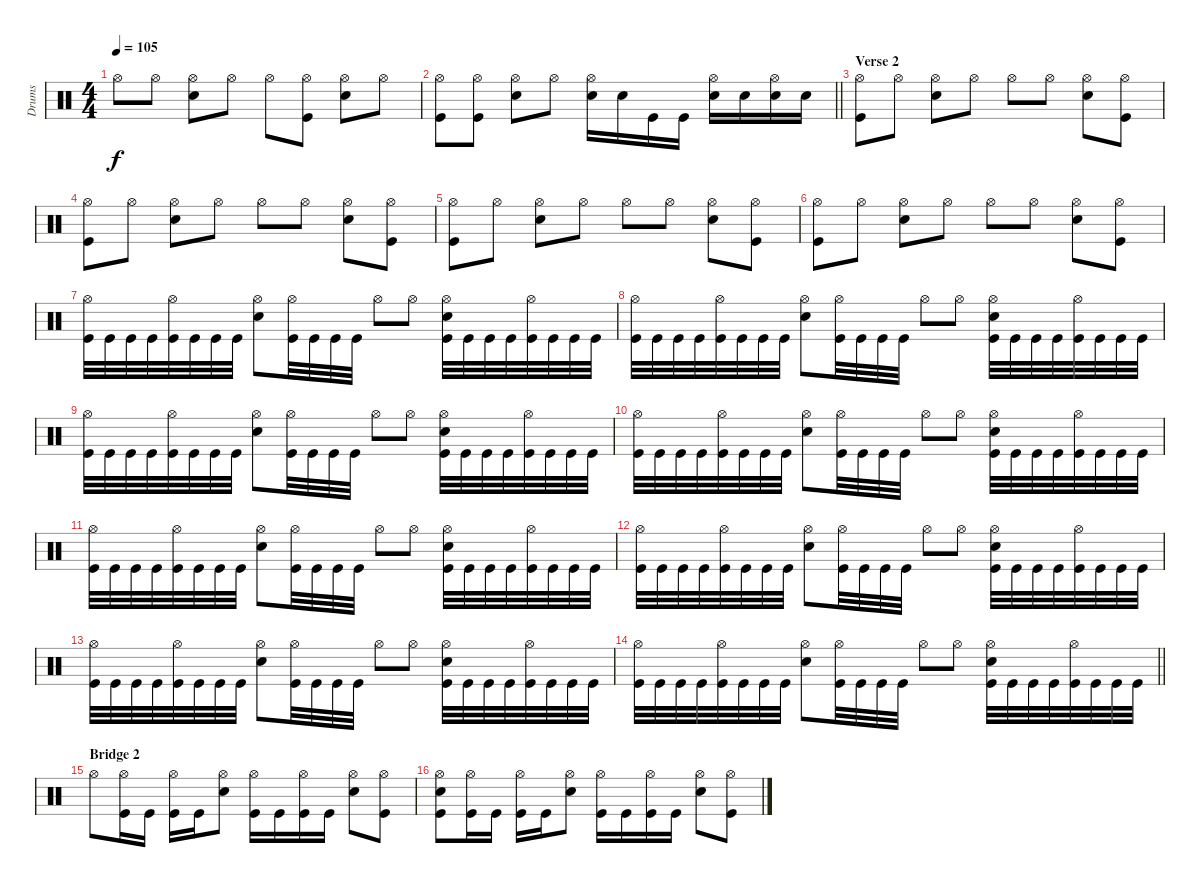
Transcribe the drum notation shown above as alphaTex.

\track ("Drums" "Drums") {instrument percussion}
\staff {score}
\articulation defaults
\ts (4 4)
\tempo 105
\clef neutral
\ks c "Hi-Hat (open)".8{dy f} "Hi-Hat (open)".8
("Snare (hit) 2" "Hi-Hat (open)").8 "Hi-Hat (open)".8 "Hi-Hat (open)".8 ("Kick (hit)" "Hi-Hat (open)").8 ("Snare (hit) 2" "Hi-Hat (open)").8 "Hi-Hat (open)".8 |
\barLineRight lightlight
("Kick (hit)" "Hi-Hat (open)").8 ("Kick (hit)" "Hi-Hat (open)").8 ("Snare (hit) 2" "Hi-Hat (open)").8 "Hi-Hat (open)".8 ("Snare (hit) 2" "Hi-Hat (open)").16 "Snare (hit) 2".16 "Kick (hit)".16 "Kick (hit)".16 ("Snare (hit) 2" "Hi-Hat (open)").16 "Snare (hit) 2".16 ("Snare (hit) 2" "Hi-Hat (open)").16 "Snare (hit) 2".16 |
\section ("" "Verse 2")
("Hi-Hat (open)" "Kick (hit)").8 "Hi-Hat (open)".8 ("Hi-Hat (open)" "Snare (hit) 2").8 "Hi-Hat (open)".8 "Hi-Hat (open)".8 "Hi-Hat (open)".8 ("Hi-Hat (open)" "Snare (hit) 2").8 ("Hi-Hat (open)" "Kick (hit)").8 |
("Hi-Hat (open)" "Kick (hit)").8 "Hi-Hat (open)".8 ("Hi-Hat (open)" "Snare (hit) 2").8 "Hi-Hat (open)".8 "Hi-Hat (open)".8 "Hi-Hat (open)".8 ("Hi-Hat (open)" "Snare (hit) 2").8 ("Hi-Hat (open)" "Kick (hit)").8 |
("Hi-Hat (open)" "Kick (hit)").8 "Hi-Hat (open)".8 ("Hi-Hat (open)" "Snare (hit) 2").8 "Hi-Hat (open)".8 "Hi-Hat (open)".8 "Hi-Hat (open)".8 ("Hi-Hat (open)" "Snare (hit) 2").8 ("Hi-Hat (open)" "Kick (hit)").8 |
("Hi-Hat (open)" "Kick (hit)").8 "Hi-Hat (open)".8 ("Hi-Hat (open)" "Snare (hit) 2").8 "Hi-Hat (open)".8 "Hi-Hat (open)".8 "Hi-Hat (open)".8 ("Hi-Hat (open)" "Snare (hit) 2").8 ("Hi-Hat (open)" "Kick (hit)").8 |
("Kick (hit)" "Hi-Hat (open)").32 "Kick (hit)".32 "Kick (hit)".32 "Kick (hit)".32 ("Kick (hit)" "Hi-Hat (open)").32 "Kick (hit)".32 "Kick (hit)".32 "Kick (hit)".32 ("Hi-Hat (open)" "Snare (hit) 2").8 ("Hi-Hat (open)" "Kick (hit)").32 "Kick (hit)".32 "Kick (hit)".32 "Kick (hit)".32 "Hi-Hat (open)".8 "Hi-Hat (open)".8 ("Hi-Hat (open)" "Snare (hit) 2" "Kick (hit)").32 "Kick (hit)".32 "Kick (hit)".32 "Kick (hit)".32 ("Hi-Hat (open)" "Kick (hit)").32 "Kick (hit)".32 "Kick (hit)".32 "Kick (hit)".32 |
("Kick (hit)" "Hi-Hat (open)").32 "Kick (hit)".32 "Kick (hit)".32 "Kick (hit)".32 ("Kick (hit)" "Hi-Hat (open)").32 "Kick (hit)".32 "Kick (hit)".32 "Kick (hit)".32 ("Hi-Hat (open)" "Snare (hit) 2").8 ("Hi-Hat (open)" "Kick (hit)").32 "Kick (hit)".32 "Kick (hit)".32 "Kick (hit)".32 "Hi-Hat (open)".8 "Hi-Hat (open)".8 ("Hi-Hat (open)" "Snare (hit) 2" "Kick (hit)").32 "Kick (hit)".32 "Kick (hit)".32 "Kick (hit)".32 ("Hi-Hat (open)" "Kick (hit)").32 "Kick (hit)".32 "Kick (hit)".32 "Kick (hit)".32 |
("Kick (hit)" "Hi-Hat (open)").32 "Kick (hit)".32 "Kick (hit)".32 "Kick (hit)".32 ("Kick (hit)" "Hi-Hat (open)").32 "Kick (hit)".32 "Kick (hit)".32 "Kick (hit)".32 ("Hi-Hat (open)" "Snare (hit) 2").8 ("Hi-Hat (open)" "Kick (hit)").32 "Kick (hit)".32 "Kick (hit)".32 "Kick (hit)".32 "Hi-Hat (open)".8 "Hi-Hat (open)".8 ("Hi-Hat (open)" "Snare (hit) 2" "Kick (hit)").32 "Kick (hit)".32 "Kick (hit)".32 "Kick (hit)".32 ("Hi-Hat (open)" "Kick (hit)").32 "Kick (hit)".32 "Kick (hit)".32 "Kick (hit)".32 |
("Kick (hit)" "Hi-Hat (open)").32 "Kick (hit)".32 "Kick (hit)".32 "Kick (hit)".32 ("Kick (hit)" "Hi-Hat (open)").32 "Kick (hit)".32 "Kick (hit)".32 "Kick (hit)".32 ("Hi-Hat (open)" "Snare (hit) 2").8 ("Hi-Hat (open)" "Kick (hit)").32 "Kick (hit)".32 "Kick (hit)".32 "Kick (hit)".32 "Hi-Hat (open)".8 "Hi-Hat (open)".8 ("Hi-Hat (open)" "Snare (hit) 2" "Kick (hit)").32 "Kick (hit)".32 "Kick (hit)".32 "Kick (hit)".32 ("Hi-Hat (open)" "Kick (hit)").32 "Kick (hit)".32 "Kick (hit)".32 "Kick (hit)".32 |
("Kick (hit)" "Hi-Hat (open)").32 "Kick (hit)".32 "Kick (hit)".32 "Kick (hit)".32 ("Kick (hit)" "Hi-Hat (open)").32 "Kick (hit)".32 "Kick (hit)".32 "Kick (hit)".32 ("Hi-Hat (open)" "Snare (hit) 2").8 ("Hi-Hat (open)" "Kick (hit)").32 "Kick (hit)".32 "Kick (hit)".32 "Kick (hit)".32 "Hi-Hat (open)".8 "Hi-Hat (open)".8 ("Hi-Hat (open)" "Snare (hit) 2" "Kick (hit)").32 "Kick (hit)".32 "Kick (hit)".32 "Kick (hit)".32 ("Hi-Hat (open)" "Kick (hit)").32 "Kick (hit)".32 "Kick (hit)".32 "Kick (hit)".32 |
("Kick (hit)" "Hi-Hat (open)").32 "Kick (hit)".32 "Kick (hit)".32 "Kick (hit)".32 ("Kick (hit)" "Hi-Hat (open)").32 "Kick (hit)".32 "Kick (hit)".32 "Kick (hit)".32 ("Hi-Hat (open)" "Snare (hit) 2").8 ("Hi-Hat (open)" "Kick (hit)").32 "Kick (hit)".32 "Kick (hit)".32 "Kick (hit)".32 "Hi-Hat (open)".8 "Hi-Hat (open)".8 ("Hi-Hat (open)" "Snare (hit) 2" "Kick (hit)").32 "Kick (hit)".32 "Kick (hit)".32 "Kick (hit)".32 ("Hi-Hat (open)" "Kick (hit)").32 "Kick (hit)".32 "Kick (hit)".32 "Kick (hit)".32 |
("Kick (hit)" "Hi-Hat (open)").32 "Kick (hit)".32 "Kick (hit)".32 "Kick (hit)".32 ("Kick (hit)" "Hi-Hat (open)").32 "Kick (hit)".32 "Kick (hit)".32 "Kick (hit)".32 ("Hi-Hat (open)" "Snare (hit) 2").8 ("Hi-Hat (open)" "Kick (hit)").32 "Kick (hit)".32 "Kick (hit)".32 "Kick (hit)".32 "Hi-Hat (open)".8 "Hi-Hat (open)".8 ("Hi-Hat (open)" "Snare (hit) 2" "Kick (hit)").32 "Kick (hit)".32 "Kick (hit)".32 "Kick (hit)".32 ("Hi-Hat (open)" "Kick (hit)").32 "Kick (hit)".32 "Kick (hit)".32 "Kick (hit)".32 |
\barLineRight lightlight
("Kick (hit)" "Hi-Hat (open)").32 "Kick (hit)".32 "Kick (hit)".32 "Kick (hit)".32 ("Kick (hit)" "Hi-Hat (open)").32 "Kick (hit)".32 "Kick (hit)".32 "Kick (hit)".32 ("Hi-Hat (open)" "Snare (hit) 2").8 ("Hi-Hat (open)" "Kick (hit)").32 "Kick (hit)".32 "Kick (hit)".32 "Kick (hit)".32 "Hi-Hat (open)".8 "Hi-Hat (open)".8 ("Hi-Hat (open)" "Snare (hit) 2" "Kick (hit)").32 "Kick (hit)".32 "Kick (hit)".32 "Kick (hit)".32 ("Hi-Hat (open)" "Kick (hit)").32 "Kick (hit)".32 "Kick (hit)".32 "Kick (hit)".32 |
\section ("" "Bridge 2")
"Hi-Hat (open)".8 ("Hi-Hat (open)" "Kick (hit)").16 "Kick (hit)".16 ("Kick (hit)" "Hi-Hat (open)").16 "Kick (hit)".16 ("Snare (hit) 2" "Hi-Hat (open)").8 ("Kick (hit)" "Hi-Hat (open)").16 "Kick (hit)".16 ("Hi-Hat (open)" "Kick (hit)").16 "Kick (hit)".16 ("Snare (hit) 2" "Hi-Hat (open)").8 ("Hi-Hat (open)" "Kick (hit)").8 |
("Kick (hit)" "Snare (hit) 2" "Hi-Hat (open)").8 ("Hi-Hat (open)" "Kick (hit)").16 "Kick (hit)".16 ("Kick (hit)" "Hi-Hat (open)").16 "Kick (hit)".16 ("Snare (hit) 2" "Hi-Hat (open)").8 ("Kick (hit)" "Hi-Hat (open)").16 "Kick (hit)".16 ("Hi-Hat (open)" "Kick (hit)").16 "Kick (hit)".16 ("Snare (hit) 2" "Hi-Hat (open)").8 ("Hi-Hat (open)" "Kick (hit)").8
